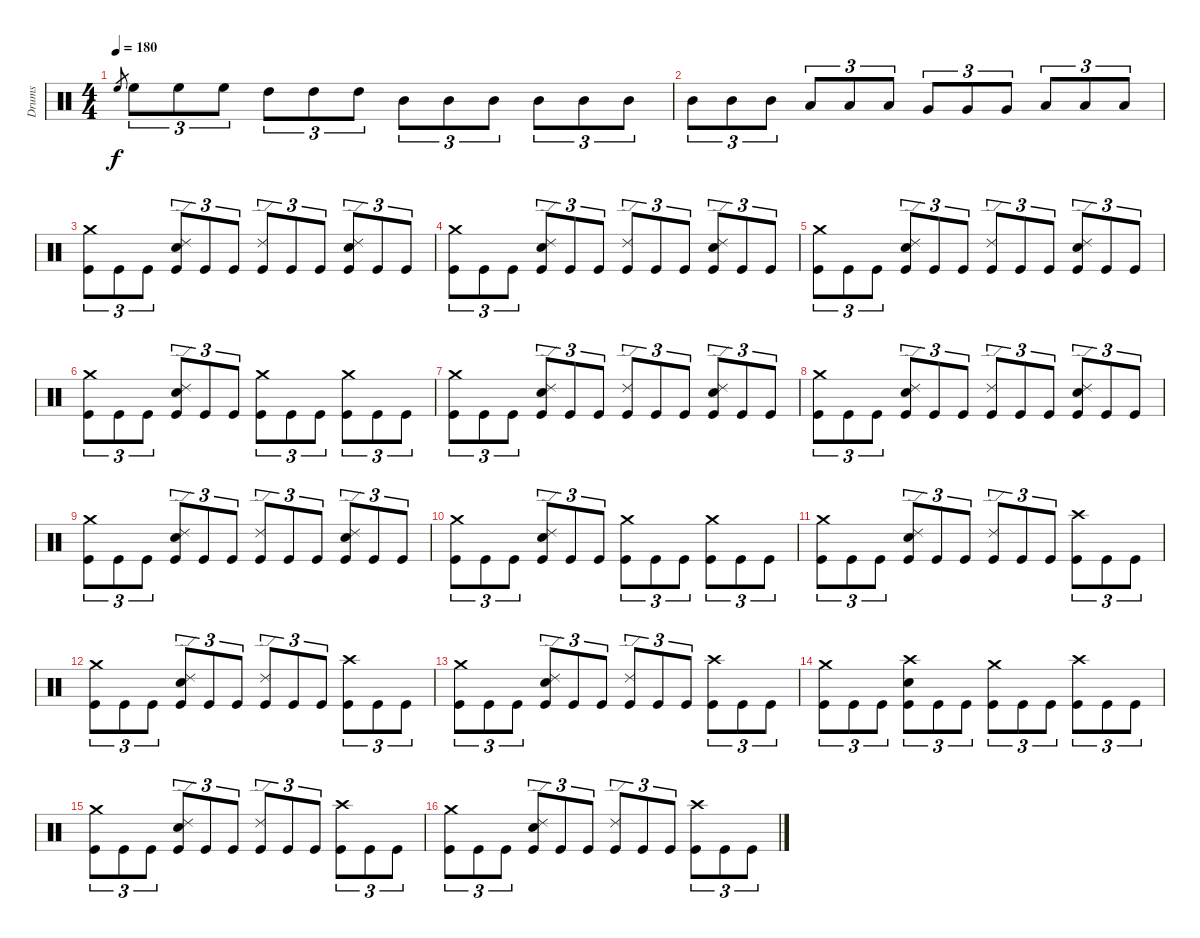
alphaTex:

\track ("Drums" "Drums") {instrument percussion}
\staff {score}
\articulation defaults
\ts (4 4)
\tempo 180
\clef neutral
\ks c "High Floor Tom (hit)".8{gr dy f} "High Floor Tom (hit)".8{tu (3 2)} "High Floor Tom (hit)".8{tu (3 2)} "High Floor Tom (hit)".8{tu (3 2)} "High Tom (hit)".8{tu (3 2)} "High Tom (hit)".8{tu (3 2)} "High Tom (hit)".8{tu (3 2)} "Mid Tom (hit)".8{tu (3 2)} "Mid Tom (hit)".8{tu (3 2)} "Mid Tom (hit)".8{tu (3 2)} "Mid Tom (hit)".8{tu (3 2)} "Mid Tom (hit)".8{tu (3 2)} "Mid Tom (hit)".8{tu (3 2)}
|
"Mid Tom (hit)".8{tu (3 2)} "Mid Tom (hit)".8{tu (3 2)} "Mid Tom (hit)".8{tu (3 2)} "Low Tom (hit)".8{tu (3 2)} "Low Tom (hit)".8{tu (3 2)} "Low Tom (hit)".8{tu (3 2)} "Very Low Tom (hit)".8{tu (3 2)} "Very Low Tom (hit)".8{tu (3 2)} "Very Low Tom (hit)".8{tu (3 2)} "Low Floor Tom (hit)".8{tu (3 2)} "Low Floor Tom (hit)".8{tu (3 2)} "Low Floor Tom (hit)".8{tu (3 2)} |
("Crash medium (hit)" "Kick (hit)").8{tu (3 2)} "Kick (hit)".8{tu (3 2)} "Kick (hit)".8{tu (3 2)} ("Ride (edge) 2" "Snare (hit) 2" "Kick (hit)").8{tu (3 2)} "Kick (hit)".8{tu (3 2)} "Kick (hit)".8{tu (3 2)} ("Ride (edge) 2" "Kick (hit)").8{tu (3 2)} "Kick (hit)".8{tu (3 2)} "Kick (hit)".8{tu (3 2)} ("Ride (edge) 2" "Snare (hit) 2" "Kick (hit)").8{tu (3 2)} "Kick (hit)".8{tu (3 2)} "Kick (hit)".8{tu (3 2)} |
("Crash medium (hit)" "Kick (hit)").8{tu (3 2)} "Kick (hit)".8{tu (3 2)} "Kick (hit)".8{tu (3 2)} ("Ride (edge) 2" "Snare (hit) 2" "Kick (hit)").8{tu (3 2)} "Kick (hit)".8{tu (3 2)} "Kick (hit)".8{tu (3 2)} ("Ride (edge) 2" "Kick (hit)").8{tu (3 2)} "Kick (hit)".8{tu (3 2)} "Kick (hit)".8{tu (3 2)} ("Ride (edge) 2" "Snare (hit) 2" "Kick (hit)").8{tu (3 2)} "Kick (hit)".8{tu (3 2)} "Kick (hit)".8{tu (3 2)} |
("Crash medium (hit)" "Kick (hit)").8{tu (3 2)} "Kick (hit)".8{tu (3 2)} "Kick (hit)".8{tu (3 2)} ("Ride (edge) 2" "Snare (hit) 2" "Kick (hit)").8{tu (3 2)} "Kick (hit)".8{tu (3 2)} "Kick (hit)".8{tu (3 2)} ("Ride (edge) 2" "Kick (hit)").8{tu (3 2)} "Kick (hit)".8{tu (3 2)} "Kick (hit)".8{tu (3 2)} ("Ride (edge) 2" "Snare (hit) 2" "Kick (hit)").8{tu (3 2)} "Kick (hit)".8{tu (3 2)} "Kick (hit)".8{tu (3 2)} |
("Crash medium (hit)" "Kick (hit)").8{tu (3 2)} "Kick (hit)".8{tu (3 2)} "Kick (hit)".8{tu (3 2)} ("Ride (edge) 2" "Snare (hit) 2" "Kick (hit)").8{tu (3 2)} "Kick (hit)".8{tu (3 2)} "Kick (hit)".8{tu (3 2)} ("Crash medium (hit)" "Kick (hit)").8{tu (3 2)} "Kick (hit)".8{tu (3 2)} "Kick (hit)".8{tu (3 2)} ("Crash medium (hit)" "Kick (hit)").8{tu (3 2)} "Kick (hit)".8{tu (3 2)} "Kick (hit)".8{tu (3 2)} |
("Crash medium (hit)" "Kick (hit)").8{tu (3 2)} "Kick (hit)".8{tu (3 2)} "Kick (hit)".8{tu (3 2)} ("Ride (edge) 2" "Snare (hit) 2" "Kick (hit)").8{tu (3 2)} "Kick (hit)".8{tu (3 2)} "Kick (hit)".8{tu (3 2)} ("Ride (edge) 2" "Kick (hit)").8{tu (3 2)} "Kick (hit)".8{tu (3 2)} "Kick (hit)".8{tu (3 2)} ("Ride (edge) 2" "Snare (hit) 2" "Kick (hit)").8{tu (3 2)} "Kick (hit)".8{tu (3 2)} "Kick (hit)".8{tu (3 2)} |
("Crash medium (hit)" "Kick (hit)").8{tu (3 2)} "Kick (hit)".8{tu (3 2)} "Kick (hit)".8{tu (3 2)} ("Ride (edge) 2" "Snare (hit) 2" "Kick (hit)").8{tu (3 2)} "Kick (hit)".8{tu (3 2)} "Kick (hit)".8{tu (3 2)} ("Ride (edge) 2" "Kick (hit)").8{tu (3 2)} "Kick (hit)".8{tu (3 2)} "Kick (hit)".8{tu (3 2)} ("Ride (edge) 2" "Snare (hit) 2" "Kick (hit)").8{tu (3 2)} "Kick (hit)".8{tu (3 2)} "Kick (hit)".8{tu (3 2)} |
("Crash medium (hit)" "Kick (hit)").8{tu (3 2)} "Kick (hit)".8{tu (3 2)} "Kick (hit)".8{tu (3 2)} ("Ride (edge) 2" "Snare (hit) 2" "Kick (hit)").8{tu (3 2)} "Kick (hit)".8{tu (3 2)} "Kick (hit)".8{tu (3 2)} ("Ride (edge) 2" "Kick (hit)").8{tu (3 2)} "Kick (hit)".8{tu (3 2)} "Kick (hit)".8{tu (3 2)} ("Ride (edge) 2" "Snare (hit) 2" "Kick (hit)").8{tu (3 2)} "Kick (hit)".8{tu (3 2)} "Kick (hit)".8{tu (3 2)} |
("Crash medium (hit)" "Kick (hit)").8{tu (3 2)} "Kick (hit)".8{tu (3 2)} "Kick (hit)".8{tu (3 2)} ("Ride (edge) 2" "Snare (hit) 2" "Kick (hit)").8{tu (3 2)} "Kick (hit)".8{tu (3 2)} "Kick (hit)".8{tu (3 2)} ("Crash medium (hit)" "Kick (hit)").8{tu (3 2)} "Kick (hit)".8{tu (3 2)} "Kick (hit)".8{tu (3 2)} ("Crash medium (hit)" "Kick (hit)").8{tu (3 2)} "Kick (hit)".8{tu (3 2)} "Kick (hit)".8{tu (3 2)} |
("Crash medium (hit)" "Kick (hit)").8{tu (3 2)} "Kick (hit)".8{tu (3 2)} "Kick (hit)".8{tu (3 2)} ("Ride (edge) 2" "Snare (hit) 2" "Kick (hit)").8{tu (3 2)} "Kick (hit)".8{tu (3 2)} "Kick (hit)".8{tu (3 2)} ("Ride (edge) 2" "Kick (hit)").8{tu (3 2)} "Kick (hit)".8{tu (3 2)} "Kick (hit)".8{tu (3 2)} ("Crash high (hit)" "Kick (hit)").8{tu (3 2)} "Kick (hit)".8{tu (3 2)} "Kick (hit)".8{tu (3 2)} |
("Crash medium (hit)" "Kick (hit)").8{tu (3 2)} "Kick (hit)".8{tu (3 2)} "Kick (hit)".8{tu (3 2)} ("Ride (edge) 2" "Snare (hit) 2" "Kick (hit)").8{tu (3 2)} "Kick (hit)".8{tu (3 2)} "Kick (hit)".8{tu (3 2)} ("Ride (edge) 2" "Kick (hit)").8{tu (3 2)} "Kick (hit)".8{tu (3 2)} "Kick (hit)".8{tu (3 2)} ("Crash high (hit)" "Kick (hit)").8{tu (3 2)} "Kick (hit)".8{tu (3 2)} "Kick (hit)".8{tu (3 2)} |
("Crash medium (hit)" "Kick (hit)").8{tu (3 2)} "Kick (hit)".8{tu (3 2)} "Kick (hit)".8{tu (3 2)} ("Ride (edge) 2" "Snare (hit) 2" "Kick (hit)").8{tu (3 2)} "Kick (hit)".8{tu (3 2)} "Kick (hit)".8{tu (3 2)} ("Ride (edge) 2" "Kick (hit)").8{tu (3 2)} "Kick (hit)".8{tu (3 2)} "Kick (hit)".8{tu (3 2)} ("Crash high (hit)" "Kick (hit)").8{tu (3 2)} "Kick (hit)".8{tu (3 2)} "Kick (hit)".8{tu (3 2)} |
("Crash medium (hit)" "Kick (hit)").8{tu (3 2)} "Kick (hit)".8{tu (3 2)} "Kick (hit)".8{tu (3 2)} ("Crash high (hit)" "Snare (hit) 2" "Kick (hit)").8{tu (3 2)} "Kick (hit)".8{tu (3 2)} "Kick (hit)".8{tu (3 2)} ("Crash medium (hit)" "Kick (hit)").8{tu (3 2)} "Kick (hit)".8{tu (3 2)} "Kick (hit)".8{tu (3 2)} ("Crash high (hit)" "Kick (hit)").8{tu (3 2)} "Kick (hit)".8{tu (3 2)} "Kick (hit)".8{tu (3 2)} |
("Crash medium (hit)" "Kick (hit)").8{tu (3 2)} "Kick (hit)".8{tu (3 2)} "Kick (hit)".8{tu (3 2)} ("Ride (edge) 2" "Snare (hit) 2" "Kick (hit)").8{tu (3 2)} "Kick (hit)".8{tu (3 2)} "Kick (hit)".8{tu (3 2)} ("Ride (edge) 2" "Kick (hit)").8{tu (3 2)} "Kick (hit)".8{tu (3 2)} "Kick (hit)".8{tu (3 2)} ("Crash high (hit)" "Kick (hit)").8{tu (3 2)} "Kick (hit)".8{tu (3 2)} "Kick (hit)".8{tu (3 2)} |
("Crash medium (hit)" "Kick (hit)").8{tu (3 2)} "Kick (hit)".8{tu (3 2)} "Kick (hit)".8{tu (3 2)} ("Ride (edge) 2" "Snare (hit) 2" "Kick (hit)").8{tu (3 2)} "Kick (hit)".8{tu (3 2)} "Kick (hit)".8{tu (3 2)} ("Ride (edge) 2" "Kick (hit)").8{tu (3 2)} "Kick (hit)".8{tu (3 2)} "Kick (hit)".8{tu (3 2)} ("Crash high (hit)" "Kick (hit)").8{tu (3 2)} "Kick (hit)".8{tu (3 2)} "Kick (hit)".8{tu (3 2)}
